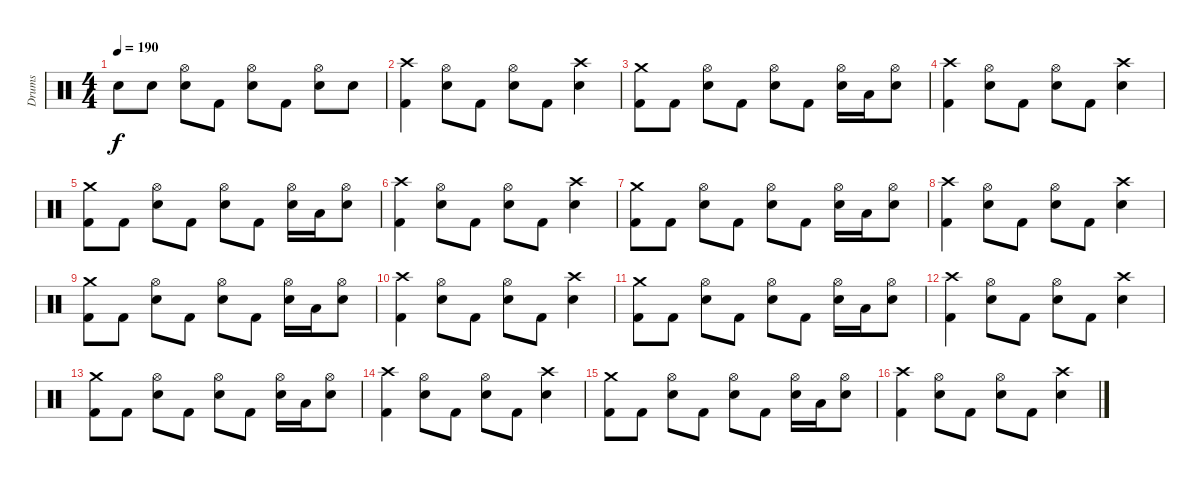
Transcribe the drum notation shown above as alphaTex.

\track ("Drums" "Drums") {instrument percussion}
\staff {score}
\articulation defaults
\ts (4 4)
\tempo 190
\clef neutral
\ks c "Snare (hit) 2".8{dy f} "Snare (hit) 2".8
("Hi-Hat (open)" "Snare (hit) 2").8 "Kick (hit) 2".8 ("Hi-Hat (open)" "Snare (hit) 2").8 "Kick (hit) 2".8 ("Hi-Hat (open)" "Snare (hit) 2").8 "Snare (hit) 2".8 |
("Crash high (hit)" "Kick (hit) 2").4 ("Hi-Hat (open)" "Snare (hit) 2").8 "Kick (hit) 2".8 ("Hi-Hat (open)" "Snare (hit) 2").8 "Kick (hit) 2".8 ("Crash high (hit)" "Snare (hit) 2").4 |
("Crash medium (hit)" "Kick (hit) 2").8 "Kick (hit) 2".8 ("Hi-Hat (open)" "Snare (hit) 2").8 "Kick (hit) 2".8 ("Hi-Hat (open)" "Snare (hit) 2").8 "Kick (hit) 2".8 ("Hi-Hat (open)" "Snare (hit) 2").16 "Low Tom (hit)".16 ("Hi-Hat (open)" "Snare (hit) 2").8 |
("Crash high (hit)" "Kick (hit) 2").4 ("Hi-Hat (open)" "Snare (hit) 2").8 "Kick (hit) 2".8 ("Hi-Hat (open)" "Snare (hit) 2").8 "Kick (hit) 2".8 ("Crash high (hit)" "Snare (hit) 2").4 |
("Crash medium (hit)" "Kick (hit) 2").8 "Kick (hit) 2".8 ("Hi-Hat (open)" "Snare (hit) 2").8 "Kick (hit) 2".8 ("Hi-Hat (open)" "Snare (hit) 2").8 "Kick (hit) 2".8 ("Hi-Hat (open)" "Snare (hit) 2").16 "Low Tom (hit)".16 ("Hi-Hat (open)" "Snare (hit) 2").8 |
("Crash high (hit)" "Kick (hit) 2").4 ("Hi-Hat (open)" "Snare (hit) 2").8 "Kick (hit) 2".8 ("Hi-Hat (open)" "Snare (hit) 2").8 "Kick (hit) 2".8 ("Crash high (hit)" "Snare (hit) 2").4 |
("Crash medium (hit)" "Kick (hit) 2").8 "Kick (hit) 2".8 ("Hi-Hat (open)" "Snare (hit) 2").8 "Kick (hit) 2".8 ("Hi-Hat (open)" "Snare (hit) 2").8 "Kick (hit) 2".8 ("Hi-Hat (open)" "Snare (hit) 2").16 "Low Tom (hit)".16 ("Hi-Hat (open)" "Snare (hit) 2").8 |
("Crash high (hit)" "Kick (hit) 2").4 ("Hi-Hat (open)" "Snare (hit) 2").8 "Kick (hit) 2".8 ("Hi-Hat (open)" "Snare (hit) 2").8 "Kick (hit) 2".8 ("Crash high (hit)" "Snare (hit) 2").4 |
("Crash medium (hit)" "Kick (hit) 2").8 "Kick (hit) 2".8 ("Hi-Hat (open)" "Snare (hit) 2").8 "Kick (hit) 2".8 ("Hi-Hat (open)" "Snare (hit) 2").8 "Kick (hit) 2".8 ("Hi-Hat (open)" "Snare (hit) 2").16 "Low Tom (hit)".16 ("Hi-Hat (open)" "Snare (hit) 2").8 |
("Crash high (hit)" "Kick (hit) 2").4 ("Hi-Hat (open)" "Snare (hit) 2").8 "Kick (hit) 2".8 ("Hi-Hat (open)" "Snare (hit) 2").8 "Kick (hit) 2".8 ("Crash high (hit)" "Snare (hit) 2").4 |
("Crash medium (hit)" "Kick (hit) 2").8 "Kick (hit) 2".8 ("Hi-Hat (open)" "Snare (hit) 2").8 "Kick (hit) 2".8 ("Hi-Hat (open)" "Snare (hit) 2").8 "Kick (hit) 2".8 ("Hi-Hat (open)" "Snare (hit) 2").16 "Low Tom (hit)".16 ("Hi-Hat (open)" "Snare (hit) 2").8 |
("Crash high (hit)" "Kick (hit) 2").4 ("Hi-Hat (open)" "Snare (hit) 2").8 "Kick (hit) 2".8 ("Hi-Hat (open)" "Snare (hit) 2").8 "Kick (hit) 2".8 ("Crash high (hit)" "Snare (hit) 2").4 |
("Crash medium (hit)" "Kick (hit) 2").8 "Kick (hit) 2".8 ("Hi-Hat (open)" "Snare (hit) 2").8 "Kick (hit) 2".8 ("Hi-Hat (open)" "Snare (hit) 2").8 "Kick (hit) 2".8 ("Hi-Hat (open)" "Snare (hit) 2").16 "Low Tom (hit)".16 ("Hi-Hat (open)" "Snare (hit) 2").8 |
("Crash high (hit)" "Kick (hit) 2").4 ("Hi-Hat (open)" "Snare (hit) 2").8 "Kick (hit) 2".8 ("Hi-Hat (open)" "Snare (hit) 2").8 "Kick (hit) 2".8 ("Crash high (hit)" "Snare (hit) 2").4 |
("Crash medium (hit)" "Kick (hit) 2").8 "Kick (hit) 2".8 ("Hi-Hat (open)" "Snare (hit) 2").8 "Kick (hit) 2".8 ("Hi-Hat (open)" "Snare (hit) 2").8 "Kick (hit) 2".8 ("Hi-Hat (open)" "Snare (hit) 2").16 "Low Tom (hit)".16 ("Hi-Hat (open)" "Snare (hit) 2").8 |
("Crash high (hit)" "Kick (hit) 2").4 ("Hi-Hat (open)" "Snare (hit) 2").8 "Kick (hit) 2".8 ("Hi-Hat (open)" "Snare (hit) 2").8 "Kick (hit) 2".8 ("Crash high (hit)" "Snare (hit) 2").4
